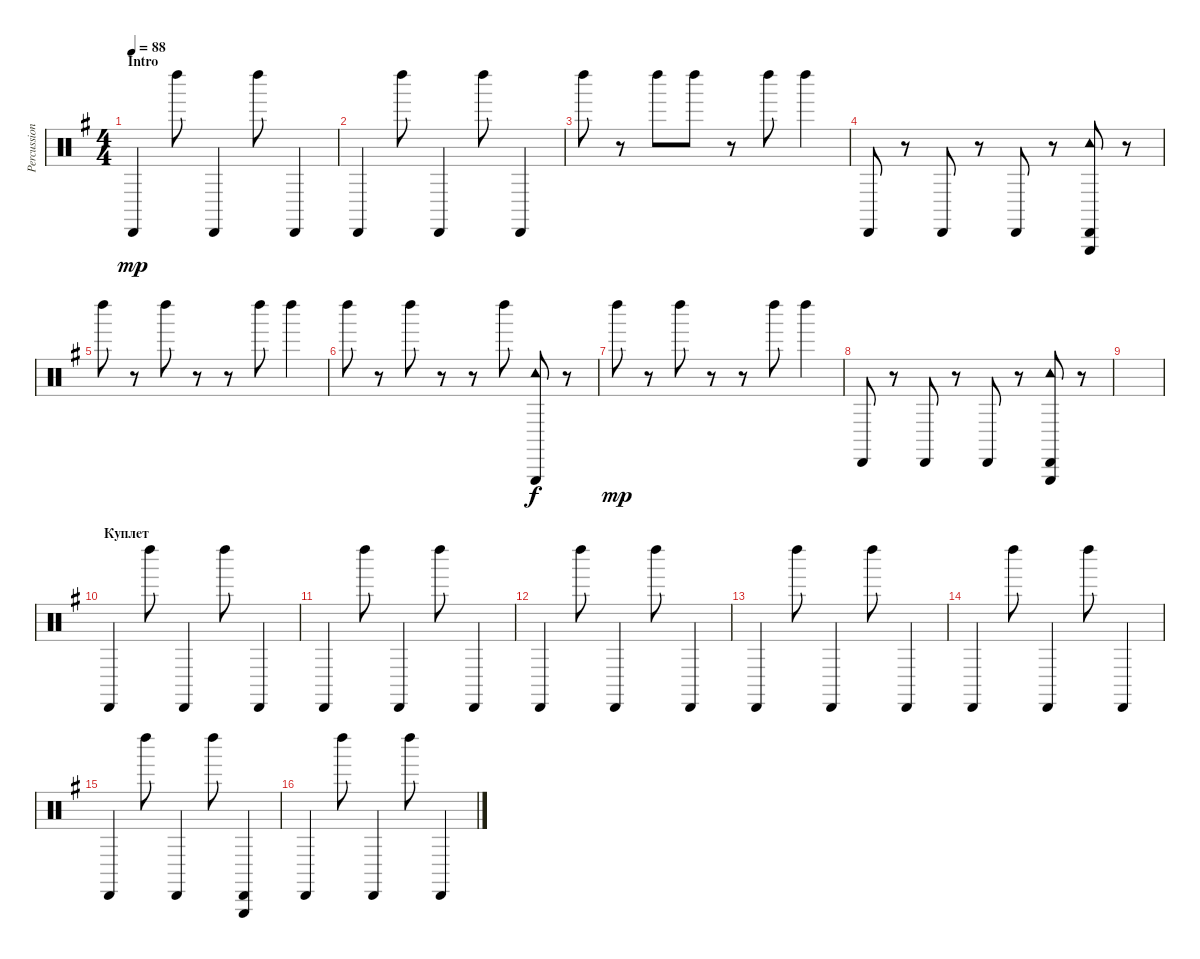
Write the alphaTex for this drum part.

\track ("Percussion" "Percussion") {instrument percussion}
\staff {score}
\articulation defaults
\ts (4 4)
\section ("" "Intro")
\tempo 88
\clef neutral
\ks g "Cabasa (hit)".4{dy mp} "Left Maraca (hit)".8 "Cabasa (hit)".4 "Left Maraca (hit)".8 "Cabasa (hit)".4
|
"Cabasa (hit)".4 "Left Maraca (hit)".8 "Cabasa (hit)".4 "Left Maraca (hit)".8 "Cabasa (hit)".4 |
"Left Maraca (hit)".8 r.8 "Left Maraca (hit)".8 "Left Maraca (hit)".8 r.8 "Left Maraca (hit)".8 "Left Maraca (hit)".4 |
"Cabasa (hit)".8 r.8 "Cabasa (hit)".8 r.8 "Cabasa (hit)".8 r.8 ("Cabasa (hit)" "Triangle (hit)" "Tambourine (hit)").8 r.8 |
"Left Maraca (hit)".8 r.8 "Left Maraca (hit)".8 r.8 r.8 "Left Maraca (hit)".8 "Left Maraca (hit)".4 |
"Left Maraca (hit)".8 r.8 "Left Maraca (hit)".8 r.8 r.8 "Left Maraca (hit)".8 ("Triangle (hit)" "Tambourine (hit)").8{dy f} r.8 |
"Left Maraca (hit)".8{dy mp} r.8 "Left Maraca (hit)".8 r.8 r.8 "Left Maraca (hit)".8 "Left Maraca (hit)".4 |
"Cabasa (hit)".8 r.8 "Cabasa (hit)".8 r.8 "Cabasa (hit)".8 r.8 ("Cabasa (hit)" "Triangle (hit)" "Tambourine (hit)").8 r.8 |
|
\section ("" "Куплет")
"Cabasa (hit)".4 "Left Maraca (hit)".8 "Cabasa (hit)".4 "Left Maraca (hit)".8 "Cabasa (hit)".4 |
"Cabasa (hit)".4 "Left Maraca (hit)".8 "Cabasa (hit)".4 "Left Maraca (hit)".8 "Cabasa (hit)".4 |
"Cabasa (hit)".4 "Left Maraca (hit)".8 "Cabasa (hit)".4 "Left Maraca (hit)".8 "Cabasa (hit)".4 |
"Cabasa (hit)".4 "Left Maraca (hit)".8 "Cabasa (hit)".4 "Left Maraca (hit)".8 "Cabasa (hit)".4 |
"Cabasa (hit)".4 "Left Maraca (hit)".8 "Cabasa (hit)".4 "Left Maraca (hit)".8 "Cabasa (hit)".4 |
"Cabasa (hit)".4 "Left Maraca (hit)".8 "Cabasa (hit)".4 "Left Maraca (hit)".8 ("Cabasa (hit)" "Triangle (hit)").4 |
"Cabasa (hit)".4 "Left Maraca (hit)".8 "Cabasa (hit)".4 "Left Maraca (hit)".8 "Cabasa (hit)".4
